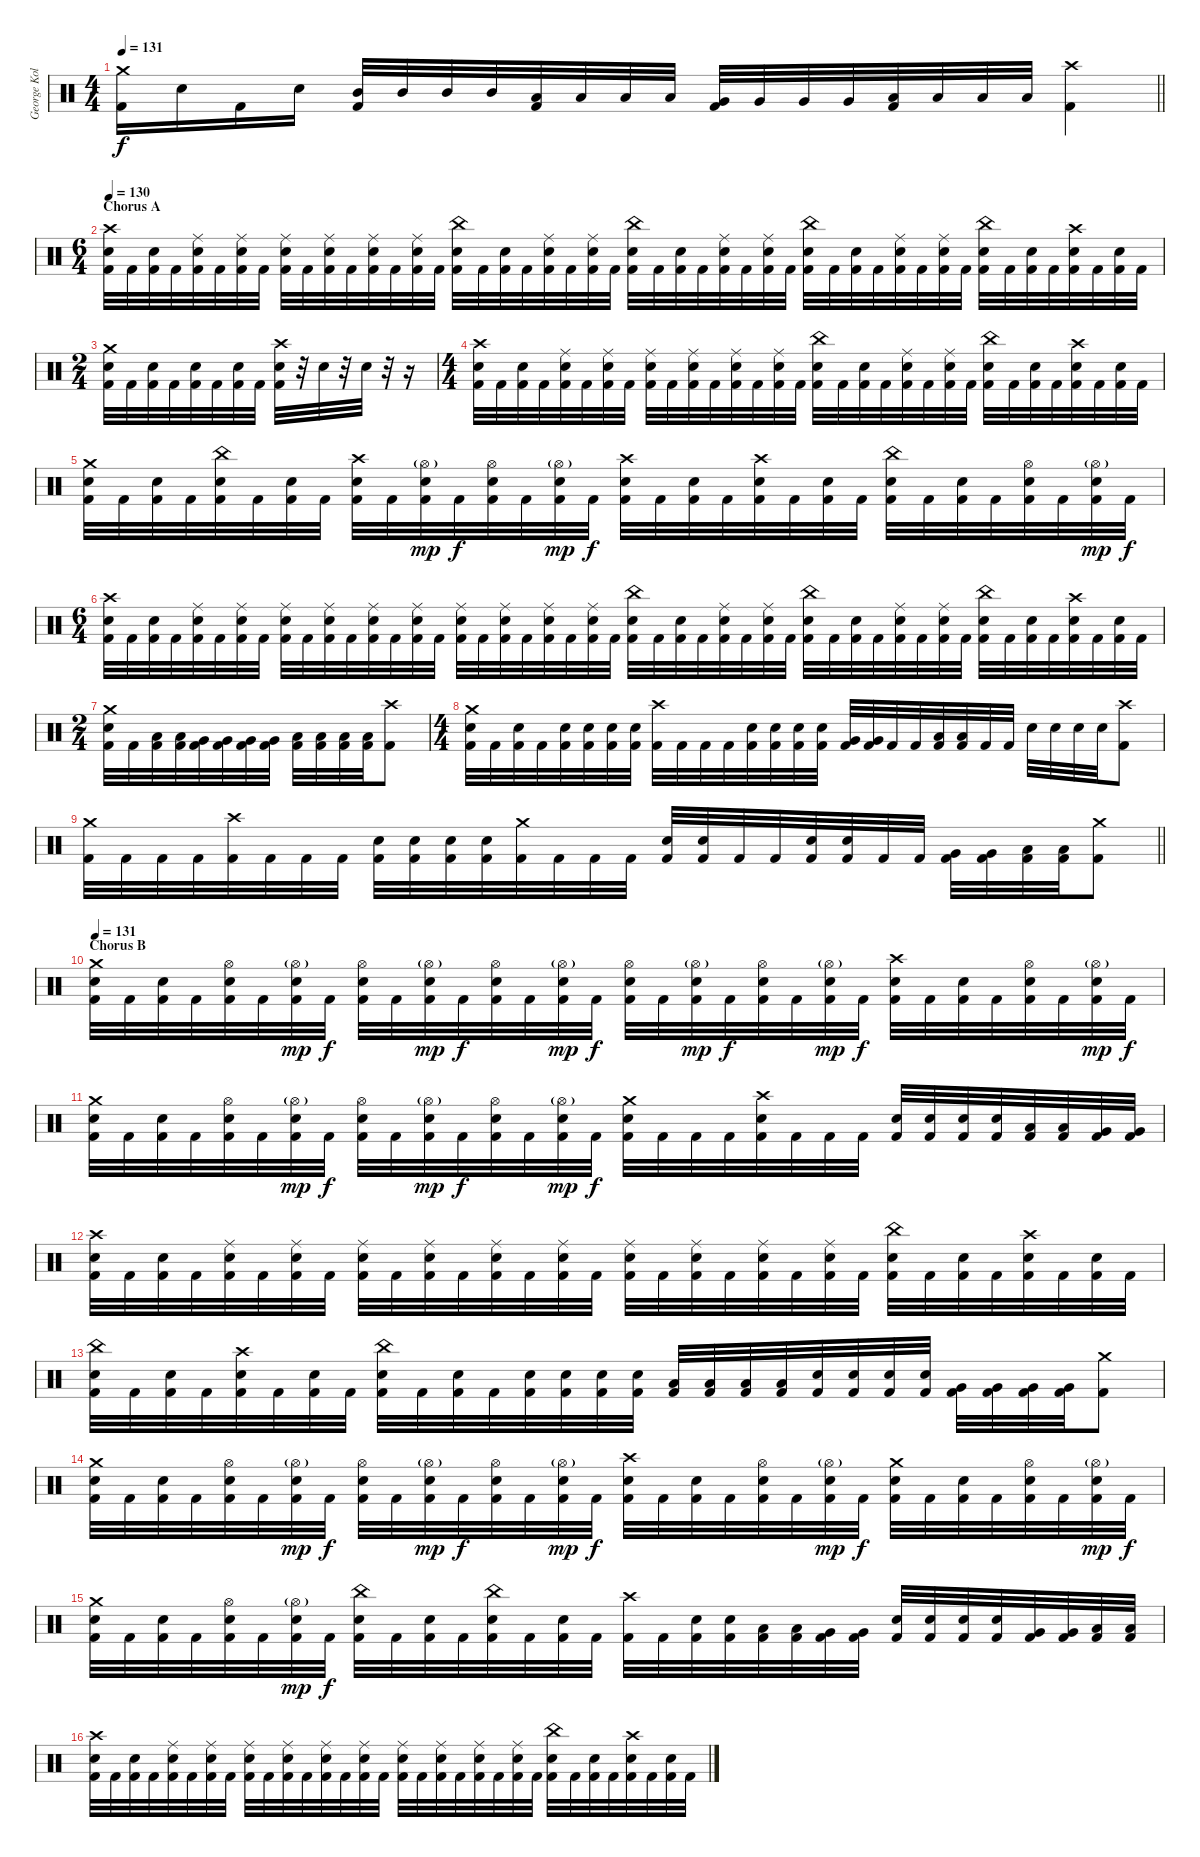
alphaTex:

\track ("George Kollias" "George Kol") {instrument percussion}
\staff {score}
\articulation defaults
\ts (4 4)
\tempo 131
\clef neutral
\barLineRight lightlight
\ks c
("Crash medium (hit)" "Kick (hit) 2").16{dy f} "Electric Snare (hit)".16 "Kick (hit) 2".16 "Electric Snare (hit)".16 ("Mid Tom (hit)" "Kick (hit) 2").32 "Mid Tom (hit)".32 "Mid Tom (hit)".32 "Mid Tom (hit)".32 ("Low Tom (hit)" "Kick (hit) 2").32 "Low Tom (hit)".32 "Low Tom (hit)".32 "Low Tom (hit)".32 ("Very Low Tom (hit)" "Kick (hit) 2").32 "Very Low Tom (hit)".32 "Very Low Tom (hit)".32 "Very Low Tom (hit)".32 ("Low Floor Tom (hit)" "Kick (hit) 2").32 "Low Floor Tom (hit)".32 "Low Floor Tom (hit)".32 "Low Floor Tom (hit)".32 ("Crash high (hit)" "Kick (hit) 2").4 |
\ts (6 4)
\section ("" "Chorus A")
\tempo 130
("Crash high (hit)" "Electric Snare (hit)" "Kick (hit) 2").32 "Kick (hit) 2".32 ("Electric Snare (hit)" "Kick (hit) 2").32 "Kick (hit) 2".32 ("Ride (middle)" "Electric Snare (hit)" "Kick (hit) 2").32 "Kick (hit) 2".32 ("Ride (middle)" "Electric Snare (hit)" "Kick (hit) 2").32 "Kick (hit) 2".32 ("Ride (middle)" "Electric Snare (hit)" "Kick (hit) 2").32 "Kick (hit) 2".32 ("Ride (middle)" "Electric Snare (hit)" "Kick (hit) 2").32 "Kick (hit) 2".32 ("Ride (middle)" "Electric Snare (hit)" "Kick (hit) 2").32 "Kick (hit) 2".32 ("Ride (middle)" "Electric Snare (hit)" "Kick (hit) 2").32 "Kick (hit) 2".32 ("China (hit)" "Electric Snare (hit)" "Kick (hit) 2").32 "Kick (hit) 2".32 ("Electric Snare (hit)" "Kick (hit) 2").32 "Kick (hit) 2".32 ("Ride (middle)" "Electric Snare (hit)" "Kick (hit) 2").32 "Kick (hit) 2".32 ("Ride (middle)" "Electric Snare (hit)" "Kick (hit) 2").32 "Kick (hit) 2".32 ("China (hit)" "Electric Snare (hit)" "Kick (hit) 2").32 "Kick (hit) 2".32 ("Electric Snare (hit)" "Kick (hit) 2").32 "Kick (hit) 2".32 ("Ride (middle)" "Electric Snare (hit)" "Kick (hit) 2").32 "Kick (hit) 2".32 ("Ride (middle)" "Electric Snare (hit)" "Kick (hit) 2").32 "Kick (hit) 2".32 ("China (hit)" "Electric Snare (hit)" "Kick (hit) 2").32 "Kick (hit) 2".32 ("Electric Snare (hit)" "Kick (hit) 2").32 "Kick (hit) 2".32 ("Ride (middle)" "Electric Snare (hit)" "Kick (hit) 2").32 "Kick (hit) 2".32 ("Ride (middle)" "Electric Snare (hit)" "Kick (hit) 2").32 "Kick (hit) 2".32 ("China (hit)" "Electric Snare (hit)" "Kick (hit) 2").32 "Kick (hit) 2".32 ("Electric Snare (hit)" "Kick (hit) 2").32 "Kick (hit) 2".32 ("Crash high (hit)" "Electric Snare (hit)" "Kick (hit) 2").32 "Kick (hit) 2".32 ("Electric Snare (hit)" "Kick (hit) 2").32 "Kick (hit) 2".32 |
\ts (2 4)
("Crash medium (hit)" "Electric Snare (hit)" "Kick (hit) 2").32 "Kick (hit) 2".32 ("Electric Snare (hit)" "Kick (hit) 2").32 "Kick (hit) 2".32 ("Electric Snare (hit)" "Kick (hit) 2").32 "Kick (hit) 2".32 ("Electric Snare (hit)" "Kick (hit) 2").32 "Kick (hit) 2".32 ("Crash high (hit)" "Electric Snare (hit)" "Kick (hit) 2").32 r.32 "Electric Snare (hit)".32 r.32 "Electric Snare (hit)".32 r.32 r.16 |
\ts (4 4)
("Crash high (hit)" "Electric Snare (hit)" "Kick (hit) 2").32 "Kick (hit) 2".32 ("Electric Snare (hit)" "Kick (hit) 2").32 "Kick (hit) 2".32 ("Ride (middle)" "Electric Snare (hit)" "Kick (hit) 2").32 "Kick (hit) 2".32 ("Ride (middle)" "Electric Snare (hit)" "Kick (hit) 2").32 "Kick (hit) 2".32 ("Ride (middle)" "Electric Snare (hit)" "Kick (hit) 2").32 "Kick (hit) 2".32 ("Ride (middle)" "Electric Snare (hit)" "Kick (hit) 2").32 "Kick (hit) 2".32 ("Ride (middle)" "Electric Snare (hit)" "Kick (hit) 2").32 "Kick (hit) 2".32 ("Ride (middle)" "Electric Snare (hit)" "Kick (hit) 2").32 "Kick (hit) 2".32 ("China (hit)" "Electric Snare (hit)" "Kick (hit) 2").32 "Kick (hit) 2".32 ("Electric Snare (hit)" "Kick (hit) 2").32 "Kick (hit) 2".32 ("Ride (middle)" "Electric Snare (hit)" "Kick (hit) 2").32 "Kick (hit) 2".32 ("Ride (middle)" "Electric Snare (hit)" "Kick (hit) 2").32 "Kick (hit) 2".32 ("China (hit)" "Electric Snare (hit)" "Kick (hit) 2").32 "Kick (hit) 2".32 ("Electric Snare (hit)" "Kick (hit) 2").32 "Kick (hit) 2".32 ("Crash high (hit)" "Electric Snare (hit)" "Kick (hit) 2").32 "Kick (hit) 2".32 ("Electric Snare (hit)" "Kick (hit) 2").32 "Kick (hit) 2".32 |
("Crash medium (hit)" "Electric Snare (hit)" "Kick (hit) 2").32 "Kick (hit) 2".32 ("Electric Snare (hit)" "Kick (hit) 2").32 "Kick (hit) 2".32 ("China (hit)" "Electric Snare (hit)" "Kick (hit) 2").32 "Kick (hit) 2".32 ("Electric Snare (hit)" "Kick (hit) 2").32 "Kick (hit) 2".32 ("Crash high (hit)" "Electric Snare (hit)" "Kick (hit) 2").32 "Kick (hit) 2".32 ("Hi-Hat (open)"{g} "Electric Snare (hit)" "Kick (hit) 2").32{dy mp} "Kick (hit) 2".32{dy f} ("Hi-Hat (open)" "Electric Snare (hit)" "Kick (hit) 2").32 "Kick (hit) 2".32 ("Hi-Hat (open)"{g} "Electric Snare (hit)" "Kick (hit) 2").32{dy mp} "Kick (hit) 2".32{dy f} ("Crash high (hit)" "Electric Snare (hit)" "Kick (hit) 2").32 "Kick (hit) 2".32 ("Electric Snare (hit)" "Kick (hit) 2").32 "Kick (hit) 2".32 ("Crash high (hit)" "Electric Snare (hit)" "Kick (hit) 2").32 "Kick (hit) 2".32 ("Electric Snare (hit)" "Kick (hit) 2").32 "Kick (hit) 2".32 ("China (hit)" "Electric Snare (hit)" "Kick (hit) 2").32 "Kick (hit) 2".32 ("Electric Snare (hit)" "Kick (hit) 2").32 "Kick (hit) 2".32 ("Hi-Hat (open)" "Electric Snare (hit)" "Kick (hit) 2").32 "Kick (hit) 2".32 ("Hi-Hat (open)"{g} "Electric Snare (hit)" "Kick (hit) 2").32{dy mp} "Kick (hit) 2".32{dy f} |
\ts (6 4)
("Crash high (hit)" "Electric Snare (hit)" "Kick (hit) 2").32 "Kick (hit) 2".32 ("Electric Snare (hit)" "Kick (hit) 2").32 "Kick (hit) 2".32 ("Ride (middle)" "Electric Snare (hit)" "Kick (hit) 2").32 "Kick (hit) 2".32 ("Ride (middle)" "Electric Snare (hit)" "Kick (hit) 2").32 "Kick (hit) 2".32 ("Ride (middle)" "Electric Snare (hit)" "Kick (hit) 2").32 "Kick (hit) 2".32 ("Ride (middle)" "Electric Snare (hit)" "Kick (hit) 2").32 "Kick (hit) 2".32 ("Ride (middle)" "Electric Snare (hit)" "Kick (hit) 2").32 "Kick (hit) 2".32 ("Ride (middle)" "Electric Snare (hit)" "Kick (hit) 2").32 "Kick (hit) 2".32 ("Ride (middle)" "Electric Snare (hit)" "Kick (hit) 2").32 "Kick (hit) 2".32 ("Ride (middle)" "Electric Snare (hit)" "Kick (hit) 2").32 "Kick (hit) 2".32 ("Ride (middle)" "Electric Snare (hit)" "Kick (hit) 2").32 "Kick (hit) 2".32 ("Ride (middle)" "Electric Snare (hit)" "Kick (hit) 2").32 "Kick (hit) 2".32 ("China (hit)" "Electric Snare (hit)" "Kick (hit) 2").32 "Kick (hit) 2".32 ("Electric Snare (hit)" "Kick (hit) 2").32 "Kick (hit) 2".32 ("Ride (middle)" "Electric Snare (hit)" "Kick (hit) 2").32 "Kick (hit) 2".32 ("Ride (middle)" "Electric Snare (hit)" "Kick (hit) 2").32 "Kick (hit) 2".32 ("China (hit)" "Electric Snare (hit)" "Kick (hit) 2").32 "Kick (hit) 2".32 ("Electric Snare (hit)" "Kick (hit) 2").32 "Kick (hit) 2".32 ("Ride (middle)" "Electric Snare (hit)" "Kick (hit) 2").32 "Kick (hit) 2".32 ("Ride (middle)" "Electric Snare (hit)" "Kick (hit) 2").32 "Kick (hit) 2".32 ("China (hit)" "Electric Snare (hit)" "Kick (hit) 2").32 "Kick (hit) 2".32 ("Electric Snare (hit)" "Kick (hit) 2").32 "Kick (hit) 2".32 ("Crash high (hit)" "Electric Snare (hit)" "Kick (hit) 2").32 "Kick (hit) 2".32 ("Electric Snare (hit)" "Kick (hit) 2").32 "Kick (hit) 2".32 |
\ts (2 4)
("Crash medium (hit)" "Electric Snare (hit)" "Kick (hit) 2").32 "Kick (hit) 2".32 ("Low Tom (hit)" "Kick (hit) 2").32 ("Low Tom (hit)" "Kick (hit) 2").32 ("Very Low Tom (hit)" "Kick (hit) 2").32 ("Very Low Tom (hit)" "Kick (hit) 2").32 ("Very Low Tom (hit)" "Kick (hit) 2").32 ("Very Low Tom (hit)" "Kick (hit) 2").32 ("Low Floor Tom (hit)" "Kick (hit) 2").32 ("Low Floor Tom (hit)" "Kick (hit) 2").32 ("Low Floor Tom (hit)" "Kick (hit) 2").32 ("Low Floor Tom (hit)" "Kick (hit) 2").32 ("Crash high (hit)" "Kick (hit) 2").8 |
\ts (4 4)
("Crash medium (hit)" "Electric Snare (hit)" "Kick (hit) 2").32 "Kick (hit) 2".32 ("Electric Snare (hit)" "Kick (hit) 2").32 "Kick (hit) 2".32 ("Electric Snare (hit)" "Kick (hit) 2").32 ("Electric Snare (hit)" "Kick (hit) 2").32 ("Electric Snare (hit)" "Kick (hit) 2").32 ("Electric Snare (hit)" "Kick (hit) 2").32 ("Crash high (hit)" "Kick (hit) 2").32 "Kick (hit) 2".32 "Kick (hit) 2".32 "Kick (hit) 2".32 ("Electric Snare (hit)" "Kick (hit) 2").32 ("Electric Snare (hit)" "Kick (hit) 2").32 ("Electric Snare (hit)" "Kick (hit) 2").32 ("Electric Snare (hit)" "Kick (hit) 2").32 ("Very Low Tom (hit)" "Kick (hit) 2").32 ("Very Low Tom (hit)" "Kick (hit) 2").32 "Kick (hit) 2".32 "Kick (hit) 2".32 ("Low Floor Tom (hit)" "Kick (hit) 2").32 ("Low Floor Tom (hit)" "Kick (hit) 2").32 "Kick (hit) 2".32 "Kick (hit) 2".32 "Electric Snare (hit)".32 "Electric Snare (hit)".32 "Electric Snare (hit)".32 "Electric Snare (hit)".32 ("Crash high (hit)" "Kick (hit) 2").8 |
\barLineRight lightlight
("Crash medium (hit)" "Kick (hit) 2").32 "Kick (hit) 2".32 "Kick (hit) 2".32 "Kick (hit) 2".32 ("Crash high (hit)" "Kick (hit) 2").32 "Kick (hit) 2".32 "Kick (hit) 2".32 "Kick (hit) 2".32 ("Electric Snare (hit)" "Kick (hit) 2").32 ("Electric Snare (hit)" "Kick (hit) 2").32 ("Electric Snare (hit)" "Kick (hit) 2").32 ("Electric Snare (hit)" "Kick (hit) 2").32 ("Crash medium (hit)" "Kick (hit) 2").32 "Kick (hit) 2".32 "Kick (hit) 2".32 "Kick (hit) 2".32 ("Electric Snare (hit)" "Kick (hit) 2").32 ("Electric Snare (hit)" "Kick (hit) 2").32 "Kick (hit) 2".32 "Kick (hit) 2".32 ("Electric Snare (hit)" "Kick (hit) 2").32 ("Electric Snare (hit)" "Kick (hit) 2").32 "Kick (hit) 2".32 "Kick (hit) 2".32 ("Very Low Tom (hit)" "Kick (hit) 2").32 ("Very Low Tom (hit)" "Kick (hit) 2").32 ("Low Floor Tom (hit)" "Kick (hit) 2").32 ("Low Floor Tom (hit)" "Kick (hit) 2").32 ("Crash medium (hit)" "Kick (hit) 2").8 |
\section ("" "Chorus B")
\tempo 131
("Crash medium (hit)" "Electric Snare (hit)" "Kick (hit) 2").32 "Kick (hit) 2".32 ("Electric Snare (hit)" "Kick (hit) 2").32 "Kick (hit) 2".32 ("Hi-Hat (open)" "Electric Snare (hit)" "Kick (hit) 2").32 "Kick (hit) 2".32 ("Hi-Hat (open)"{g} "Electric Snare (hit)" "Kick (hit) 2").32{dy mp} "Kick (hit) 2".32{dy f} ("Hi-Hat (open)" "Electric Snare (hit)" "Kick (hit) 2").32 "Kick (hit) 2".32 ("Hi-Hat (open)"{g} "Electric Snare (hit)" "Kick (hit) 2").32{dy mp} "Kick (hit) 2".32{dy f} ("Hi-Hat (open)" "Electric Snare (hit)" "Kick (hit) 2").32 "Kick (hit) 2".32 ("Hi-Hat (open)"{g} "Electric Snare (hit)" "Kick (hit) 2").32{dy mp} "Kick (hit) 2".32{dy f} ("Hi-Hat (open)" "Electric Snare (hit)" "Kick (hit) 2").32 "Kick (hit) 2".32 ("Hi-Hat (open)"{g} "Electric Snare (hit)" "Kick (hit) 2").32{dy mp} "Kick (hit) 2".32{dy f} ("Hi-Hat (open)" "Electric Snare (hit)" "Kick (hit) 2").32 "Kick (hit) 2".32 ("Hi-Hat (open)"{g} "Electric Snare (hit)" "Kick (hit) 2").32{dy mp} "Kick (hit) 2".32{dy f} ("Crash high (hit)" "Electric Snare (hit)" "Kick (hit) 2").32 "Kick (hit) 2".32 ("Electric Snare (hit)" "Kick (hit) 2").32 "Kick (hit) 2".32 ("Hi-Hat (open)" "Electric Snare (hit)" "Kick (hit) 2").32 "Kick (hit) 2".32 ("Hi-Hat (open)"{g} "Electric Snare (hit)" "Kick (hit) 2").32{dy mp} "Kick (hit) 2".32{dy f} |
("Crash medium (hit)" "Electric Snare (hit)" "Kick (hit) 2").32 "Kick (hit) 2".32 ("Electric Snare (hit)" "Kick (hit) 2").32 "Kick (hit) 2".32 ("Hi-Hat (open)" "Electric Snare (hit)" "Kick (hit) 2").32 "Kick (hit) 2".32 ("Hi-Hat (open)"{g} "Electric Snare (hit)" "Kick (hit) 2").32{dy mp} "Kick (hit) 2".32{dy f} ("Hi-Hat (open)" "Electric Snare (hit)" "Kick (hit) 2").32 "Kick (hit) 2".32 ("Hi-Hat (open)"{g} "Electric Snare (hit)" "Kick (hit) 2").32{dy mp} "Kick (hit) 2".32{dy f} ("Hi-Hat (open)" "Electric Snare (hit)" "Kick (hit) 2").32 "Kick (hit) 2".32 ("Hi-Hat (open)"{g} "Electric Snare (hit)" "Kick (hit) 2").32{dy mp} "Kick (hit) 2".32{dy f} ("Crash medium (hit)" "Electric Snare (hit)" "Kick (hit) 2").32 "Kick (hit) 2".32 "Kick (hit) 2".32 "Kick (hit) 2".32 ("Crash high (hit)" "Electric Snare (hit)" "Kick (hit) 2").32 "Kick (hit) 2".32 "Kick (hit) 2".32 "Kick (hit) 2".32 ("Electric Snare (hit)" "Kick (hit) 2").32 ("Electric Snare (hit)" "Kick (hit) 2").32 ("Electric Snare (hit)" "Kick (hit) 2").32 ("Electric Snare (hit)" "Kick (hit) 2").32 ("Low Tom (hit)" "Kick (hit) 2").32 ("Low Tom (hit)" "Kick (hit) 2").32 ("Very Low Tom (hit)" "Kick (hit) 2").32 ("Very Low Tom (hit)" "Kick (hit) 2").32 |
("Crash high (hit)" "Electric Snare (hit)" "Kick (hit) 2").32 "Kick (hit) 2".32 ("Electric Snare (hit)" "Kick (hit) 2").32 "Kick (hit) 2".32 ("Ride (middle)" "Electric Snare (hit)" "Kick (hit) 2").32 "Kick (hit) 2".32 ("Ride (middle)" "Electric Snare (hit)" "Kick (hit) 2").32 "Kick (hit) 2".32 ("Ride (middle)" "Electric Snare (hit)" "Kick (hit) 2").32 "Kick (hit) 2".32 ("Ride (middle)" "Electric Snare (hit)" "Kick (hit) 2").32 "Kick (hit) 2".32 ("Ride (middle)" "Electric Snare (hit)" "Kick (hit) 2").32 "Kick (hit) 2".32 ("Ride (middle)" "Electric Snare (hit)" "Kick (hit) 2").32 "Kick (hit) 2".32 ("Ride (middle)" "Electric Snare (hit)" "Kick (hit) 2").32 "Kick (hit) 2".32 ("Ride (middle)" "Electric Snare (hit)" "Kick (hit) 2").32 "Kick (hit) 2".32 ("Ride (middle)" "Electric Snare (hit)" "Kick (hit) 2").32 "Kick (hit) 2".32 ("Ride (middle)" "Electric Snare (hit)" "Kick (hit) 2").32 "Kick (hit) 2".32 ("China (hit)" "Electric Snare (hit)" "Kick (hit) 2").32 "Kick (hit) 2".32 ("Electric Snare (hit)" "Kick (hit) 2").32 "Kick (hit) 2".32 ("Crash high (hit)" "Electric Snare (hit)" "Kick (hit) 2").32 "Kick (hit) 2".32 ("Electric Snare (hit)" "Kick (hit) 2").32 "Kick (hit) 2".32 |
("China (hit)" "Electric Snare (hit)" "Kick (hit) 2").32 "Kick (hit) 2".32 ("Electric Snare (hit)" "Kick (hit) 2").32 "Kick (hit) 2".32 ("Crash high (hit)" "Electric Snare (hit)" "Kick (hit) 2").32 "Kick (hit) 2".32 ("Electric Snare (hit)" "Kick (hit) 2").32 "Kick (hit) 2".32 ("China (hit)" "Electric Snare (hit)" "Kick (hit) 2").32 "Kick (hit) 2".32 ("Electric Snare (hit)" "Kick (hit) 2").32 "Kick (hit) 2".32 ("Electric Snare (hit)" "Kick (hit) 2").32 ("Electric Snare (hit)" "Kick (hit) 2").32 ("Electric Snare (hit)" "Kick (hit) 2").32 ("Electric Snare (hit)" "Kick (hit) 2").32 ("Low Tom (hit)" "Kick (hit) 2").32 ("Low Tom (hit)" "Kick (hit) 2").32 ("Low Tom (hit)" "Kick (hit) 2").32 ("Low Tom (hit)" "Kick (hit) 2").32 ("Electric Snare (hit)" "Kick (hit) 2").32 ("Electric Snare (hit)" "Kick (hit) 2").32 ("Electric Snare (hit)" "Kick (hit) 2").32 ("Electric Snare (hit)" "Kick (hit) 2").32 ("Very Low Tom (hit)" "Kick (hit) 2").32 ("Very Low Tom (hit)" "Kick (hit) 2").32 ("Very Low Tom (hit)" "Kick (hit) 2").32 ("Very Low Tom (hit)" "Kick (hit) 2").32 ("Crash medium (hit)" "Kick (hit) 2").8 |
("Crash medium (hit)" "Electric Snare (hit)" "Kick (hit) 2").32 "Kick (hit) 2".32 ("Electric Snare (hit)" "Kick (hit) 2").32 "Kick (hit) 2".32 ("Hi-Hat (open)" "Electric Snare (hit)" "Kick (hit) 2").32 "Kick (hit) 2".32 ("Hi-Hat (open)"{g} "Electric Snare (hit)" "Kick (hit) 2").32{dy mp} "Kick (hit) 2".32{dy f} ("Hi-Hat (open)" "Electric Snare (hit)" "Kick (hit) 2").32 "Kick (hit) 2".32 ("Hi-Hat (open)"{g} "Electric Snare (hit)" "Kick (hit) 2").32{dy mp} "Kick (hit) 2".32{dy f} ("Hi-Hat (open)" "Electric Snare (hit)" "Kick (hit) 2").32 "Kick (hit) 2".32 ("Hi-Hat (open)"{g} "Electric Snare (hit)" "Kick (hit) 2").32{dy mp} "Kick (hit) 2".32{dy f} ("Crash high (hit)" "Electric Snare (hit)" "Kick (hit) 2").32 "Kick (hit) 2".32 ("Electric Snare (hit)" "Kick (hit) 2").32 "Kick (hit) 2".32 ("Hi-Hat (open)" "Electric Snare (hit)" "Kick (hit) 2").32 "Kick (hit) 2".32 ("Hi-Hat (open)"{g} "Electric Snare (hit)" "Kick (hit) 2").32{dy mp} "Kick (hit) 2".32{dy f} ("Crash medium (hit)" "Electric Snare (hit)" "Kick (hit) 2").32 "Kick (hit) 2".32 ("Electric Snare (hit)" "Kick (hit) 2").32 "Kick (hit) 2".32 ("Hi-Hat (open)" "Electric Snare (hit)" "Kick (hit) 2").32 "Kick (hit) 2".32 ("Hi-Hat (open)"{g} "Electric Snare (hit)" "Kick (hit) 2").32{dy mp} "Kick (hit) 2".32{dy f} |
("Crash medium (hit)" "Electric Snare (hit)" "Kick (hit) 2").32 "Kick (hit) 2".32 ("Electric Snare (hit)" "Kick (hit) 2").32 "Kick (hit) 2".32 ("Hi-Hat (open)" "Electric Snare (hit)" "Kick (hit) 2").32 "Kick (hit) 2".32 ("Hi-Hat (open)"{g} "Electric Snare (hit)" "Kick (hit) 2").32{dy mp} "Kick (hit) 2".32{dy f} ("China (hit)" "Electric Snare (hit)" "Kick (hit) 2").32 "Kick (hit) 2".32 ("Electric Snare (hit)" "Kick (hit) 2").32 "Kick (hit) 2".32 ("China (hit)" "Electric Snare (hit)" "Kick (hit) 2").32 "Kick (hit) 2".32 ("Electric Snare (hit)" "Kick (hit) 2").32 "Kick (hit) 2".32 ("Crash high (hit)" "Kick (hit) 2").32 "Kick (hit) 2".32 ("Electric Snare (hit)" "Kick (hit) 2").32 ("Electric Snare (hit)" "Kick (hit) 2").32 ("Low Tom (hit)" "Kick (hit) 2").32 ("Low Tom (hit)" "Kick (hit) 2").32 ("Very Low Tom (hit)" "Kick (hit) 2").32 ("Very Low Tom (hit)" "Kick (hit) 2").32 ("Electric Snare (hit)" "Kick (hit) 2").32 ("Electric Snare (hit)" "Kick (hit) 2").32 ("Electric Snare (hit)" "Kick (hit) 2").32 ("Electric Snare (hit)" "Kick (hit) 2").32 ("Very Low Tom (hit)" "Kick (hit) 2").32 ("Very Low Tom (hit)" "Kick (hit) 2").32 ("Low Floor Tom (hit)" "Kick (hit) 2").32 ("Low Floor Tom (hit)" "Kick (hit) 2").32 |
("Crash high (hit)" "Electric Snare (hit)" "Kick (hit) 2").32 "Kick (hit) 2".32 ("Electric Snare (hit)" "Kick (hit) 2").32 "Kick (hit) 2".32 ("Ride (middle)" "Electric Snare (hit)" "Kick (hit) 2").32 "Kick (hit) 2".32 ("Ride (middle)" "Electric Snare (hit)" "Kick (hit) 2").32 "Kick (hit) 2".32 ("Ride (middle)" "Electric Snare (hit)" "Kick (hit) 2").32 "Kick (hit) 2".32 ("Ride (middle)" "Electric Snare (hit)" "Kick (hit) 2").32 "Kick (hit) 2".32 ("Ride (middle)" "Electric Snare (hit)" "Kick (hit) 2").32 "Kick (hit) 2".32 ("Ride (middle)" "Electric Snare (hit)" "Kick (hit) 2").32 "Kick (hit) 2".32 ("Ride (middle)" "Electric Snare (hit)" "Kick (hit) 2").32 "Kick (hit) 2".32 ("Ride (middle)" "Electric Snare (hit)" "Kick (hit) 2").32 "Kick (hit) 2".32 ("Ride (middle)" "Electric Snare (hit)" "Kick (hit) 2").32 "Kick (hit) 2".32 ("Ride (middle)" "Electric Snare (hit)" "Kick (hit) 2").32 "Kick (hit) 2".32 ("China (hit)" "Electric Snare (hit)" "Kick (hit) 2").32 "Kick (hit) 2".32 ("Electric Snare (hit)" "Kick (hit) 2").32 "Kick (hit) 2".32 ("Crash high (hit)" "Electric Snare (hit)" "Kick (hit) 2").32 "Kick (hit) 2".32 ("Electric Snare (hit)" "Kick (hit) 2").32 "Kick (hit) 2".32
